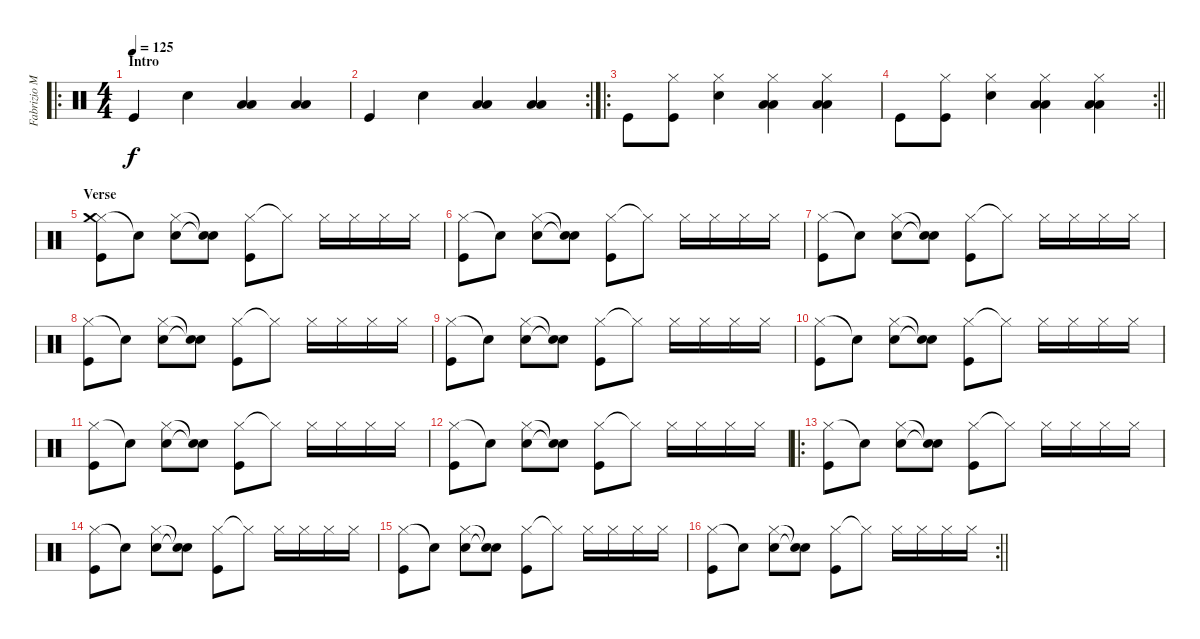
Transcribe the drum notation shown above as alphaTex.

\track ("Fabrizio Moretti" "Fabrizio M") {instrument percussion}
\staff {score}
\articulation defaults
\ro
\ts (4 4)
\section ("" "Intro")
\tempo 125
\clef neutral
\ks c "Kick (hit)".4{dy f} "Electric Snare (hit)".4
("Low Tom (hit)" "Low Floor Tom (hit)").4 ("Low Floor Tom (hit)" "Low Floor Tom (hit)").4 |
\rc 2 "Kick (hit)".4 "Electric Snare (hit)".4
("Low Tom (hit)" "Low Floor Tom (hit)").4 ("Low Floor Tom (hit)" "Low Floor Tom (hit)").4 |
\ro "Kick (hit)".8
("Hi-Hat (closed)" "Kick (hit)").8 ("Hi-Hat (closed)" "Electric Snare (hit)").4 ("Hi-Hat (closed)" "Low Tom (hit)" "Low Floor Tom (hit)").4 ("Hi-Hat (closed)" "Low Floor Tom (hit)" "Low Floor Tom (hit)").4 |
\rc 2
\barLineRight lightlight "Kick (hit)".8
("Hi-Hat (closed)" "Kick (hit)").8 ("Hi-Hat (closed)" "Electric Snare (hit)").4 ("Hi-Hat (closed)" "Low Tom (hit)" "Low Floor Tom (hit)").4 ("Hi-Hat (closed)" "Low Floor Tom (hit)" "Low Floor Tom (hit)").4 |
\section ("" "Verse")
("Hi-Hat (closed)" "Crash medium (hit)" "Kick (hit)").8 "Snare (hit)"{t}.8 ("Hi-Hat (closed)" "Electric Snare (hit)").8 ("Snare (hit)"{t} "Snare (hit)"{t}).8 ("Hi-Hat (closed)" "Kick (hit)").8 "Hi-Hat (closed)"{t}.8 "Hi-Hat (closed)".16 "Hi-Hat (closed)".16 "Hi-Hat (closed)".16 "Hi-Hat (closed)".16 |
("Hi-Hat (closed)" "Kick (hit)").8 "Snare (hit)"{t}.8 ("Hi-Hat (closed)" "Electric Snare (hit)").8 ("Snare (hit)"{t} "Snare (hit)"{t}).8 ("Hi-Hat (closed)" "Kick (hit)").8 "Hi-Hat (closed)"{t}.8 "Hi-Hat (closed)".16 "Hi-Hat (closed)".16 "Hi-Hat (closed)".16 "Hi-Hat (closed)".16 |
("Hi-Hat (closed)" "Kick (hit)").8 "Snare (hit)"{t}.8 ("Hi-Hat (closed)" "Electric Snare (hit)").8 ("Snare (hit)"{t} "Snare (hit)"{t}).8 ("Hi-Hat (closed)" "Kick (hit)").8 "Hi-Hat (closed)"{t}.8 "Hi-Hat (closed)".16 "Hi-Hat (closed)".16 "Hi-Hat (closed)".16 "Hi-Hat (closed)".16 |
("Hi-Hat (closed)" "Kick (hit)").8 "Snare (hit)"{t}.8 ("Hi-Hat (closed)" "Electric Snare (hit)").8 ("Snare (hit)"{t} "Snare (hit)"{t}).8 ("Hi-Hat (closed)" "Kick (hit)").8 "Hi-Hat (closed)"{t}.8 "Hi-Hat (closed)".16 "Hi-Hat (closed)".16 "Hi-Hat (closed)".16 "Hi-Hat (closed)".16 |
("Hi-Hat (closed)" "Kick (hit)").8 "Snare (hit)"{t}.8 ("Hi-Hat (closed)" "Electric Snare (hit)").8 ("Snare (hit)"{t} "Snare (hit)"{t}).8 ("Hi-Hat (closed)" "Kick (hit)").8 "Hi-Hat (closed)"{t}.8 "Hi-Hat (closed)".16 "Hi-Hat (closed)".16 "Hi-Hat (closed)".16 "Hi-Hat (closed)".16 |
("Hi-Hat (closed)" "Kick (hit)").8 "Snare (hit)"{t}.8 ("Hi-Hat (closed)" "Electric Snare (hit)").8 ("Snare (hit)"{t} "Snare (hit)"{t}).8 ("Hi-Hat (closed)" "Kick (hit)").8 "Hi-Hat (closed)"{t}.8 "Hi-Hat (closed)".16 "Hi-Hat (closed)".16 "Hi-Hat (closed)".16 "Hi-Hat (closed)".16 |
("Hi-Hat (closed)" "Kick (hit)").8 "Snare (hit)"{t}.8 ("Hi-Hat (closed)" "Electric Snare (hit)").8 ("Snare (hit)"{t} "Snare (hit)"{t}).8 ("Hi-Hat (closed)" "Kick (hit)").8 "Hi-Hat (closed)"{t}.8 "Hi-Hat (closed)".16 "Hi-Hat (closed)".16 "Hi-Hat (closed)".16 "Hi-Hat (closed)".16 |
("Hi-Hat (closed)" "Kick (hit)").8 "Snare (hit)"{t}.8 ("Hi-Hat (closed)" "Electric Snare (hit)").8 ("Snare (hit)"{t} "Snare (hit)"{t}).8 ("Hi-Hat (closed)" "Kick (hit)").8 "Hi-Hat (closed)"{t}.8 "Hi-Hat (closed)".16 "Hi-Hat (closed)".16 "Hi-Hat (closed)".16 "Hi-Hat (closed)".16 |
\ro
("Hi-Hat (closed)" "Kick (hit)").8 "Snare (hit)"{t}.8 ("Hi-Hat (closed)" "Electric Snare (hit)").8 ("Snare (hit)"{t} "Snare (hit)"{t}).8 ("Hi-Hat (closed)" "Kick (hit)").8 "Hi-Hat (closed)"{t}.8 "Hi-Hat (closed)".16 "Hi-Hat (closed)".16 "Hi-Hat (closed)".16 "Hi-Hat (closed)".16 |
("Hi-Hat (closed)" "Kick (hit)").8 "Snare (hit)"{t}.8 ("Hi-Hat (closed)" "Electric Snare (hit)").8 ("Snare (hit)"{t} "Snare (hit)"{t}).8 ("Hi-Hat (closed)" "Kick (hit)").8 "Hi-Hat (closed)"{t}.8 "Hi-Hat (closed)".16 "Hi-Hat (closed)".16 "Hi-Hat (closed)".16 "Hi-Hat (closed)".16 |
("Hi-Hat (closed)" "Kick (hit)").8 "Snare (hit)"{t}.8 ("Hi-Hat (closed)" "Electric Snare (hit)").8 ("Snare (hit)"{t} "Snare (hit)"{t}).8 ("Hi-Hat (closed)" "Kick (hit)").8 "Hi-Hat (closed)"{t}.8 "Hi-Hat (closed)".16 "Hi-Hat (closed)".16 "Hi-Hat (closed)".16 "Hi-Hat (closed)".16 |
\rc 2
\barLineRight lightlight
("Hi-Hat (closed)" "Kick (hit)").8 "Snare (hit)"{t}.8 ("Hi-Hat (closed)" "Electric Snare (hit)").8 ("Snare (hit)"{t} "Snare (hit)"{t}).8 ("Hi-Hat (closed)" "Kick (hit)").8 "Hi-Hat (closed)"{t}.8 "Hi-Hat (closed)".16 "Hi-Hat (closed)".16 "Hi-Hat (closed)".16 "Hi-Hat (closed)".16
